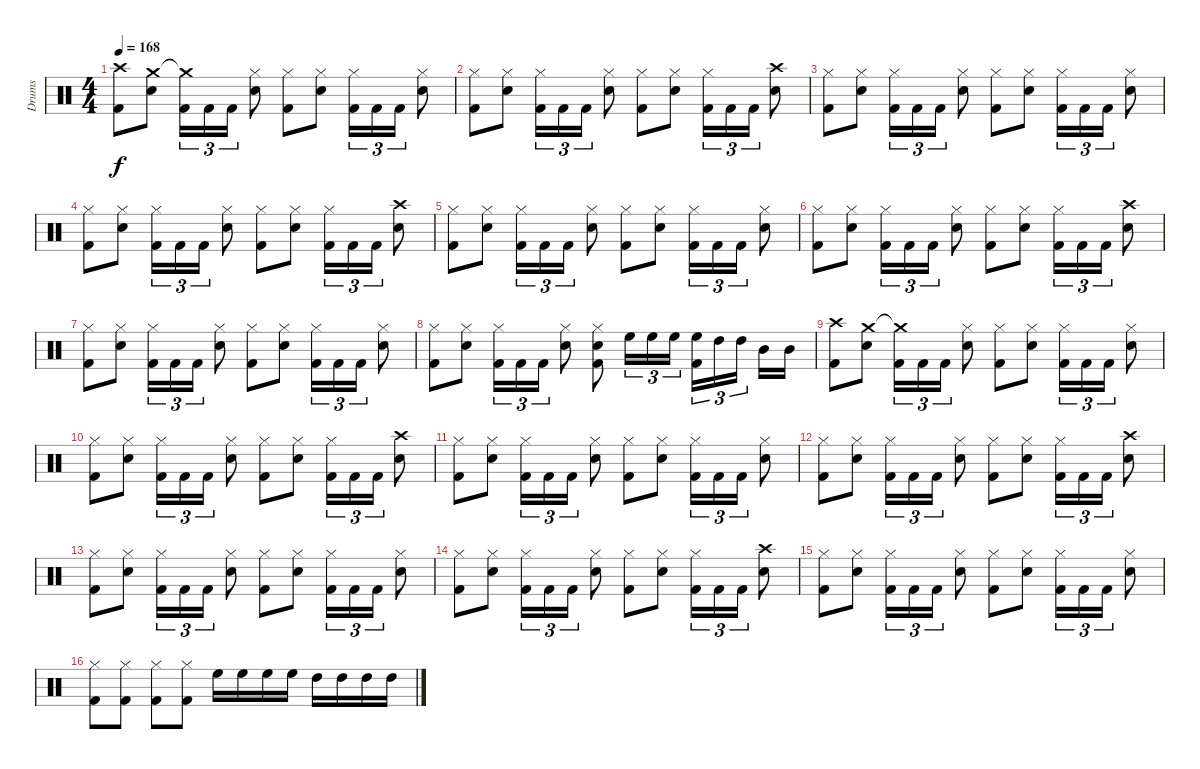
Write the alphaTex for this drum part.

\track ("Drums" "Drums") {instrument percussion}
\staff {score}
\articulation defaults
\ts (4 4)
\tempo 168
\clef neutral
\ks c
("Crash high (hit)" "Kick (hit) 2").8{dy f} ("Crash medium (hit)" "Snare (hit) 2").8 ("Crash medium (hit)"{t} "Kick (hit) 2").16{tu (3 2)} "Kick (hit) 2".16{tu (3 2)} "Kick (hit) 2".16{tu (3 2)} ("Hi-Hat (closed)" "Snare (hit) 2").8 ("Hi-Hat (closed)" "Kick (hit) 2").8 ("Hi-Hat (closed)" "Snare (hit) 2").8 ("Hi-Hat (closed)" "Kick (hit) 2").16{tu (3 2)} "Kick (hit) 2".16{tu (3 2)} "Kick (hit) 2".16{tu (3 2)} ("Hi-Hat (closed)" "Snare (hit) 2").8 |
("Hi-Hat (closed)" "Kick (hit) 2").8 ("Hi-Hat (closed)" "Snare (hit) 2").8 ("Hi-Hat (closed)" "Kick (hit) 2").16{tu (3 2)} "Kick (hit) 2".16{tu (3 2)} "Kick (hit) 2".16{tu (3 2)} ("Hi-Hat (closed)" "Snare (hit) 2").8 ("Hi-Hat (closed)" "Kick (hit) 2").8 ("Hi-Hat (closed)" "Snare (hit) 2").8 ("Hi-Hat (closed)" "Kick (hit) 2").16{tu (3 2)} "Kick (hit) 2".16{tu (3 2)} "Kick (hit) 2".16{tu (3 2)} ("Crash high (hit)" "Snare (hit) 2").8 |
("Hi-Hat (closed)" "Kick (hit) 2").8 ("Hi-Hat (closed)" "Snare (hit) 2").8 ("Hi-Hat (closed)" "Kick (hit) 2").16{tu (3 2)} "Kick (hit) 2".16{tu (3 2)} "Kick (hit) 2".16{tu (3 2)} ("Hi-Hat (closed)" "Snare (hit) 2").8 ("Hi-Hat (closed)" "Kick (hit) 2").8 ("Hi-Hat (closed)" "Snare (hit) 2").8 ("Hi-Hat (closed)" "Kick (hit) 2").16{tu (3 2)} "Kick (hit) 2".16{tu (3 2)} "Kick (hit) 2".16{tu (3 2)} ("Hi-Hat (closed)" "Snare (hit) 2").8 |
("Hi-Hat (closed)" "Kick (hit) 2").8 ("Hi-Hat (closed)" "Snare (hit) 2").8 ("Hi-Hat (closed)" "Kick (hit) 2").16{tu (3 2)} "Kick (hit) 2".16{tu (3 2)} "Kick (hit) 2".16{tu (3 2)} ("Hi-Hat (closed)" "Snare (hit) 2").8 ("Hi-Hat (closed)" "Kick (hit) 2").8 ("Hi-Hat (closed)" "Snare (hit) 2").8 ("Hi-Hat (closed)" "Kick (hit) 2").16{tu (3 2)} "Kick (hit) 2".16{tu (3 2)} "Kick (hit) 2".16{tu (3 2)} ("Crash high (hit)" "Snare (hit) 2").8 |
("Hi-Hat (closed)" "Kick (hit) 2").8 ("Hi-Hat (closed)" "Snare (hit) 2").8 ("Hi-Hat (closed)" "Kick (hit) 2").16{tu (3 2)} "Kick (hit) 2".16{tu (3 2)} "Kick (hit) 2".16{tu (3 2)} ("Hi-Hat (closed)" "Snare (hit) 2").8 ("Hi-Hat (closed)" "Kick (hit) 2").8 ("Hi-Hat (closed)" "Snare (hit) 2").8 ("Hi-Hat (closed)" "Kick (hit) 2").16{tu (3 2)} "Kick (hit) 2".16{tu (3 2)} "Kick (hit) 2".16{tu (3 2)} ("Hi-Hat (closed)" "Snare (hit) 2").8 |
("Hi-Hat (closed)" "Kick (hit) 2").8 ("Hi-Hat (closed)" "Snare (hit) 2").8 ("Hi-Hat (closed)" "Kick (hit) 2").16{tu (3 2)} "Kick (hit) 2".16{tu (3 2)} "Kick (hit) 2".16{tu (3 2)} ("Hi-Hat (closed)" "Snare (hit) 2").8 ("Hi-Hat (closed)" "Kick (hit) 2").8 ("Hi-Hat (closed)" "Snare (hit) 2").8 ("Hi-Hat (closed)" "Kick (hit) 2").16{tu (3 2)} "Kick (hit) 2".16{tu (3 2)} "Kick (hit) 2".16{tu (3 2)} ("Crash high (hit)" "Snare (hit) 2").8 |
("Hi-Hat (closed)" "Kick (hit) 2").8 ("Hi-Hat (closed)" "Snare (hit) 2").8 ("Hi-Hat (closed)" "Kick (hit) 2").16{tu (3 2)} "Kick (hit) 2".16{tu (3 2)} "Kick (hit) 2".16{tu (3 2)} ("Hi-Hat (closed)" "Snare (hit) 2").8 ("Hi-Hat (closed)" "Kick (hit) 2").8 ("Hi-Hat (closed)" "Snare (hit) 2").8 ("Hi-Hat (closed)" "Kick (hit) 2").16{tu (3 2)} "Kick (hit) 2".16{tu (3 2)} "Kick (hit) 2".16{tu (3 2)} ("Hi-Hat (closed)" "Snare (hit) 2").8 |
("Hi-Hat (closed)" "Kick (hit) 2").8 ("Hi-Hat (closed)" "Snare (hit) 2").8 ("Hi-Hat (closed)" "Kick (hit) 2").16{tu (3 2)} "Kick (hit) 2".16{tu (3 2)} "Kick (hit) 2".16{tu (3 2)} ("Hi-Hat (closed)" "Snare (hit) 2").8 ("Hi-Hat (closed)" "Snare (hit) 2" "Kick (hit) 2").8 "High Floor Tom (hit)".16{tu (3 2)} "High Floor Tom (hit)".16{tu (3 2)} "High Floor Tom (hit)".16{tu (3 2)} ("High Floor Tom (hit)" "Kick (hit) 2").16{tu (3 2)} "High Tom (hit)".16{tu (3 2)} "High Tom (hit)".16{tu (3 2)} "Mid Tom (hit)".16 "Mid Tom (hit)".16 |
("Crash high (hit)" "Kick (hit) 2").8 ("Crash medium (hit)" "Snare (hit) 2").8 ("Crash medium (hit)"{t} "Kick (hit) 2").16{tu (3 2)} "Kick (hit) 2".16{tu (3 2)} "Kick (hit) 2".16{tu (3 2)} ("Hi-Hat (closed)" "Snare (hit) 2").8 ("Hi-Hat (closed)" "Kick (hit) 2").8 ("Hi-Hat (closed)" "Snare (hit) 2").8 ("Hi-Hat (closed)" "Kick (hit) 2").16{tu (3 2)} "Kick (hit) 2".16{tu (3 2)} "Kick (hit) 2".16{tu (3 2)} ("Hi-Hat (closed)" "Snare (hit) 2").8 |
("Hi-Hat (closed)" "Kick (hit) 2").8 ("Hi-Hat (closed)" "Snare (hit) 2").8 ("Hi-Hat (closed)" "Kick (hit) 2").16{tu (3 2)} "Kick (hit) 2".16{tu (3 2)} "Kick (hit) 2".16{tu (3 2)} ("Hi-Hat (closed)" "Snare (hit) 2").8 ("Hi-Hat (closed)" "Kick (hit) 2").8 ("Hi-Hat (closed)" "Snare (hit) 2").8 ("Hi-Hat (closed)" "Kick (hit) 2").16{tu (3 2)} "Kick (hit) 2".16{tu (3 2)} "Kick (hit) 2".16{tu (3 2)} ("Crash high (hit)" "Snare (hit) 2").8 |
("Hi-Hat (closed)" "Kick (hit) 2").8 ("Hi-Hat (closed)" "Snare (hit) 2").8 ("Hi-Hat (closed)" "Kick (hit) 2").16{tu (3 2)} "Kick (hit) 2".16{tu (3 2)} "Kick (hit) 2".16{tu (3 2)} ("Hi-Hat (closed)" "Snare (hit) 2").8 ("Hi-Hat (closed)" "Kick (hit) 2").8 ("Hi-Hat (closed)" "Snare (hit) 2").8 ("Hi-Hat (closed)" "Kick (hit) 2").16{tu (3 2)} "Kick (hit) 2".16{tu (3 2)} "Kick (hit) 2".16{tu (3 2)} ("Hi-Hat (closed)" "Snare (hit) 2").8 |
("Hi-Hat (closed)" "Kick (hit) 2").8 ("Hi-Hat (closed)" "Snare (hit) 2").8 ("Hi-Hat (closed)" "Kick (hit) 2").16{tu (3 2)} "Kick (hit) 2".16{tu (3 2)} "Kick (hit) 2".16{tu (3 2)} ("Hi-Hat (closed)" "Snare (hit) 2").8 ("Hi-Hat (closed)" "Kick (hit) 2").8 ("Hi-Hat (closed)" "Snare (hit) 2").8 ("Hi-Hat (closed)" "Kick (hit) 2").16{tu (3 2)} "Kick (hit) 2".16{tu (3 2)} "Kick (hit) 2".16{tu (3 2)} ("Crash high (hit)" "Snare (hit) 2").8 |
("Hi-Hat (closed)" "Kick (hit) 2").8 ("Hi-Hat (closed)" "Snare (hit) 2").8 ("Hi-Hat (closed)" "Kick (hit) 2").16{tu (3 2)} "Kick (hit) 2".16{tu (3 2)} "Kick (hit) 2".16{tu (3 2)} ("Hi-Hat (closed)" "Snare (hit) 2").8 ("Hi-Hat (closed)" "Kick (hit) 2").8 ("Hi-Hat (closed)" "Snare (hit) 2").8 ("Hi-Hat (closed)" "Kick (hit) 2").16{tu (3 2)} "Kick (hit) 2".16{tu (3 2)} "Kick (hit) 2".16{tu (3 2)} ("Hi-Hat (closed)" "Snare (hit) 2").8 |
("Hi-Hat (closed)" "Kick (hit) 2").8 ("Hi-Hat (closed)" "Snare (hit) 2").8 ("Hi-Hat (closed)" "Kick (hit) 2").16{tu (3 2)} "Kick (hit) 2".16{tu (3 2)} "Kick (hit) 2".16{tu (3 2)} ("Hi-Hat (closed)" "Snare (hit) 2").8 ("Hi-Hat (closed)" "Kick (hit) 2").8 ("Hi-Hat (closed)" "Snare (hit) 2").8 ("Hi-Hat (closed)" "Kick (hit) 2").16{tu (3 2)} "Kick (hit) 2".16{tu (3 2)} "Kick (hit) 2".16{tu (3 2)} ("Crash high (hit)" "Snare (hit) 2").8 |
("Hi-Hat (closed)" "Kick (hit) 2").8 ("Hi-Hat (closed)" "Snare (hit) 2").8 ("Hi-Hat (closed)" "Kick (hit) 2").16{tu (3 2)} "Kick (hit) 2".16{tu (3 2)} "Kick (hit) 2".16{tu (3 2)} ("Hi-Hat (closed)" "Snare (hit) 2").8 ("Hi-Hat (closed)" "Kick (hit) 2").8 ("Hi-Hat (closed)" "Snare (hit) 2").8 ("Hi-Hat (closed)" "Kick (hit) 2").16{tu (3 2)} "Kick (hit) 2".16{tu (3 2)} "Kick (hit) 2".16{tu (3 2)} ("Hi-Hat (closed)" "Snare (hit) 2").8 |
("Hi-Hat (closed)" "Kick (hit) 2").8 ("Hi-Hat (closed)" "Kick (hit) 2").8 ("Hi-Hat (closed)" "Kick (hit) 2").8 ("Hi-Hat (closed)" "Kick (hit) 2").8 "High Floor Tom (hit)".16 "High Floor Tom (hit)".16 "High Floor Tom (hit)".16 "High Floor Tom (hit)".16 "High Tom (hit)".16 "High Tom (hit)".16 "High Tom (hit)".16 "High Tom (hit)".16
